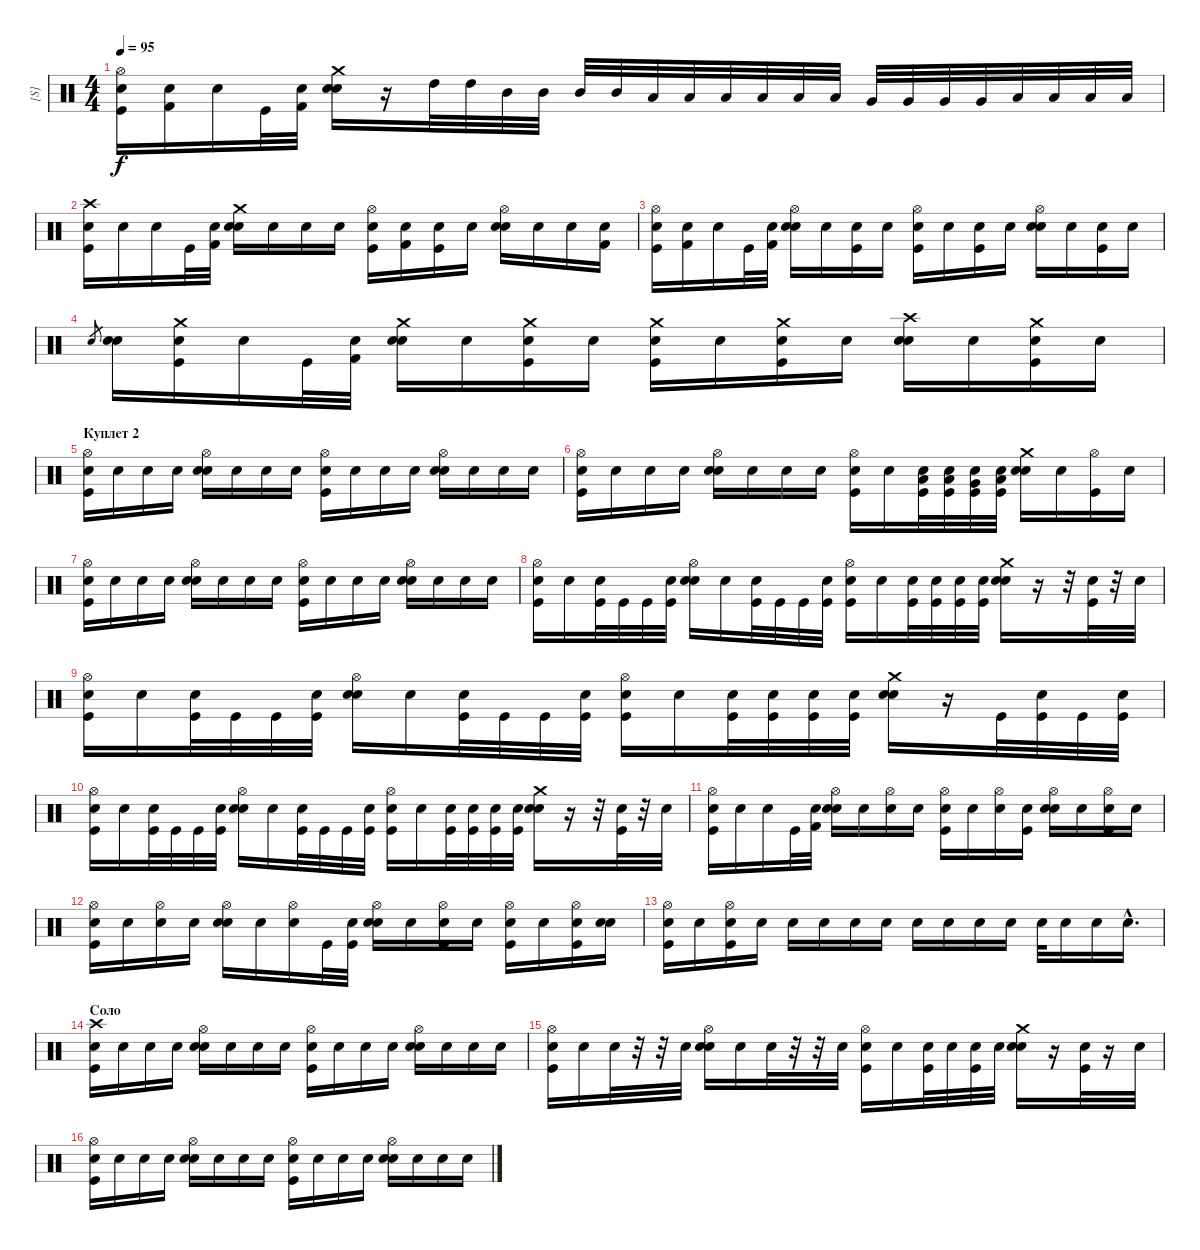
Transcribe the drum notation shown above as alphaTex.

\track ("[S]" "[S]") {instrument percussion}
\staff {score}
\articulation defaults
\ts (4 4)
\tempo 95
\clef neutral
\ks c
("Hi-Hat (open)" "Kick (hit)" "Snare (hit)"{x}).16{dy f} ("Kick (hit) 2" "Snare (hit)"{x}).16 "Snare (hit)"{x}.16 "Kick (hit)".32 ("Kick (hit) 2" "Snare (hit)"{x}).32 ("Crash medium (hit)" "Snare (hit) 2" "Snare (hit)"{x}).16 r.16 "High Tom (hit)".32 "High Tom (hit)".32 "Mid Tom (hit)".32 "Mid Tom (hit)".32 "Mid Tom (hit)".32 "Mid Tom (hit)".32 "Low Tom (hit)".32 "Low Tom (hit)".32 "Low Tom (hit)".32 "Low Tom (hit)".32 "Low Tom (hit)".32 "Low Tom (hit)".32 "Very Low Tom (hit)".32 "Very Low Tom (hit)".32 "Very Low Tom (hit)".32 "Very Low Tom (hit)".32 "Low Floor Tom (hit)".32 "Low Floor Tom (hit)".32 "Low Floor Tom (hit)".32 "Low Floor Tom (hit)".32 |
("Crash high (hit)" "Kick (hit)" "Snare (hit)"{x}).16 "Snare (hit)"{x}.16 "Snare (hit)"{x}.16 "Kick (hit)".32 ("Kick (hit) 2" "Snare (hit)"{x}).32 ("Crash medium (hit)" "Snare (hit) 2" "Snare (hit)"{x}).16 "Snare (hit)"{x}.16 "Snare (hit)"{x}.16 "Snare (hit)"{x}.16 ("Hi-Hat (open)" "Kick (hit)" "Snare (hit)"{x}).16 ("Kick (hit) 2" "Snare (hit)"{x}).16 ("Kick (hit)" "Snare (hit)"{x}).16 "Snare (hit)"{x}.16 ("Hi-Hat (open)" "Snare (hit) 2" "Snare (hit)"{x}).16 "Snare (hit)"{x}.16 "Snare (hit)"{x}.16 ("Kick (hit) 2" "Snare (hit)"{x}).16 |
("Hi-Hat (open)" "Kick (hit)" "Snare (hit)"{x}).16 ("Kick (hit) 2" "Snare (hit)"{x}).16 "Snare (hit)"{x}.16 "Kick (hit)".32 ("Kick (hit) 2" "Snare (hit)"{x}).32 ("Hi-Hat (open)" "Snare (hit) 2" "Snare (hit)"{x}).16 "Snare (hit)"{x}.16 ("Kick (hit)" "Snare (hit)"{x}).16 "Snare (hit)"{x}.16 ("Hi-Hat (open)" "Kick (hit)" "Snare (hit)"{x}).16 "Snare (hit)"{x}.16 ("Kick (hit)" "Snare (hit)"{x}).16 "Snare (hit)"{x}.16 ("Hi-Hat (open)" "Snare (hit) 2" "Snare (hit)"{x}).16 "Snare (hit)"{x}.16 ("Kick (hit)" "Snare (hit)"{x}).16 "Snare (hit)"{x}.16 |
"Snare (hit) 2".8{gr} ("Snare (hit) 2" "Snare (hit)"{x}).16 ("Crash medium (hit)" "Kick (hit)" "Snare (hit)"{x}).16 "Snare (hit)"{x}.16 "Kick (hit)".32 ("Kick (hit) 2" "Snare (hit)"{x}).32 ("Crash medium (hit)" "Snare (hit) 2" "Snare (hit)"{x}).16 "Snare (hit)"{x}.16 ("Crash medium (hit)" "Kick (hit)" "Snare (hit)"{x}).16 "Snare (hit)"{x}.16 ("Crash medium (hit)" "Kick (hit)" "Snare (hit)"{x}).16 "Snare (hit)"{x}.16 ("Crash medium (hit)" "Kick (hit)" "Snare (hit)"{x}).16 "Snare (hit)"{x}.16 ("Crash high (hit)" "Snare (hit) 2" "Snare (hit)"{x}).16 "Snare (hit)"{x}.16 ("Crash medium (hit)" "Kick (hit)" "Snare (hit)"{x}).16 "Snare (hit)"{x}.16 |
\section ("" "Куплет 2")
("Hi-Hat (open)" "Kick (hit)" "Snare (hit)"{x}).16 "Snare (hit)"{x}.16 "Snare (hit)"{x}.16 "Snare (hit)"{x}.16 ("Hi-Hat (open)" "Snare (hit) 2" "Snare (hit)"{x}).16 "Snare (hit)"{x}.16 "Snare (hit)"{x}.16 "Snare (hit)"{x}.16 ("Hi-Hat (open)" "Kick (hit)" "Snare (hit)"{x}).16 "Snare (hit)"{x}.16 "Snare (hit)"{x}.16 "Snare (hit)"{x}.16 ("Hi-Hat (open)" "Snare (hit) 2" "Snare (hit)"{x}).16 "Snare (hit)"{x}.16 "Snare (hit)"{x}.16 "Snare (hit)"{x}.16 |
("Hi-Hat (open)" "Kick (hit)" "Snare (hit)"{x}).16 "Snare (hit)"{x}.16 "Snare (hit)"{x}.16 "Snare (hit)"{x}.16 ("Hi-Hat (open)" "Snare (hit) 2" "Snare (hit)"{x}).16 "Snare (hit)"{x}.16 "Snare (hit)"{x}.16 "Snare (hit)"{x}.16 ("Hi-Hat (open)" "Kick (hit)" "Snare (hit)"{x}).16 "Snare (hit)"{x}.16 ("Low Tom (hit)" "Kick (hit)" "Snare (hit)"{x}).32 ("Low Tom (hit)" "Kick (hit)" "Snare (hit)"{x}).32 ("Very Low Tom (hit)" "Kick (hit)" "Snare (hit)"{x}).32 ("Low Floor Tom (hit)" "Kick (hit)" "Snare (hit)"{x}).32 ("Crash medium (hit)" "Snare (hit) 2" "Snare (hit)"{x}).16 "Snare (hit)"{x}.16 ("Hi-Hat (open)" "Kick (hit)").16 "Snare (hit)"{x}.16 |
\section ("" "")
("Hi-Hat (open)" "Kick (hit)" "Snare (hit)"{x}).16 "Snare (hit)"{x}.16 "Snare (hit)"{x}.16 "Snare (hit)"{x}.16 ("Hi-Hat (open)" "Snare (hit) 2" "Snare (hit)"{x}).16 "Snare (hit)"{x}.16 "Snare (hit)"{x}.16 "Snare (hit)"{x}.16 ("Hi-Hat (open)" "Kick (hit)" "Snare (hit)"{x}).16 "Snare (hit)"{x}.16 "Snare (hit)"{x}.16 "Snare (hit)"{x}.16 ("Hi-Hat (open)" "Snare (hit) 2" "Snare (hit)"{x}).16 "Snare (hit)"{x}.16 "Snare (hit)"{x}.16 "Snare (hit)"{x}.16 |
("Hi-Hat (open)" "Kick (hit)" "Snare (hit)"{x}).16 "Snare (hit)"{x}.16 ("Kick (hit)" "Snare (hit)"{x}).32 "Kick (hit)".32 "Kick (hit)".32 ("Kick (hit)" "Snare (hit)"{x}).32 ("Hi-Hat (open)" "Snare (hit) 2" "Snare (hit)"{x}).16 "Snare (hit)"{x}.16 ("Kick (hit)" "Snare (hit)"{x}).32 "Kick (hit)".32 "Kick (hit)".32 ("Kick (hit)" "Snare (hit)"{x}).32 ("Hi-Hat (open)" "Kick (hit)" "Snare (hit)"{x}).16 "Snare (hit)"{x}.16 ("Kick (hit)" "Snare (hit)"{x}).32 ("Kick (hit)" "Snare (hit)"{x}).32 ("Kick (hit)" "Snare (hit)"{x}).32 ("Kick (hit)" "Snare (hit)"{x}).32 ("Crash medium (hit)" "Snare (hit) 2" "Snare (hit)"{x}).16 r.16 r.32 ("Kick (hit)" "Snare (hit)"{x}).32 r.32 "Snare (hit)"{x}.32 |
("Hi-Hat (open)" "Kick (hit)" "Snare (hit)"{x}).16 "Snare (hit)"{x}.16 ("Kick (hit)" "Snare (hit)"{x}).32 "Kick (hit)".32 "Kick (hit)".32 ("Kick (hit)" "Snare (hit)"{x}).32 ("Hi-Hat (open)" "Snare (hit) 2" "Snare (hit)"{x}).16 "Snare (hit)"{x}.16 ("Kick (hit)" "Snare (hit)"{x}).32 "Kick (hit)".32 "Kick (hit)".32 ("Kick (hit)" "Snare (hit)"{x}).32 ("Hi-Hat (open)" "Kick (hit)" "Snare (hit)"{x}).16 "Snare (hit)"{x}.16 ("Kick (hit)" "Snare (hit)"{x}).32 ("Kick (hit)" "Snare (hit)"{x}).32 ("Kick (hit)" "Snare (hit)"{x}).32 ("Kick (hit)" "Snare (hit)"{x}).32 ("Crash medium (hit)" "Snare (hit) 2" "Snare (hit)"{x}).16 r.16 "Kick (hit)".32 ("Kick (hit)" "Snare (hit)"{x}).32 "Kick (hit)".32 ("Kick (hit)" "Snare (hit)"{x}).32 |
("Hi-Hat (open)" "Kick (hit)" "Snare (hit)"{x}).16 "Snare (hit)"{x}.16 ("Kick (hit)" "Snare (hit)"{x}).32 "Kick (hit)".32 "Kick (hit)".32 ("Kick (hit)" "Snare (hit)"{x}).32 ("Hi-Hat (open)" "Snare (hit) 2" "Snare (hit)"{x}).16 "Snare (hit)"{x}.16 ("Kick (hit)" "Snare (hit)"{x}).32 "Kick (hit)".32 "Kick (hit)".32 ("Kick (hit)" "Snare (hit)"{x}).32 ("Hi-Hat (open)" "Kick (hit)" "Snare (hit)"{x}).16 "Snare (hit)"{x}.16 ("Kick (hit)" "Snare (hit)"{x}).32 ("Kick (hit)" "Snare (hit)"{x}).32 ("Kick (hit)" "Snare (hit)"{x}).32 ("Kick (hit)" "Snare (hit)"{x}).32 ("Crash medium (hit)" "Snare (hit) 2" "Snare (hit)"{x}).16 r.16 r.32 ("Kick (hit)" "Snare (hit)"{x}).32 r.32 "Snare (hit)"{x}.32 |
("Hi-Hat (open)" "Kick (hit)" "Snare (hit)"{x}).16 "Snare (hit)"{x}.16 "Snare (hit)"{x}.16 "Kick (hit)".32 ("Kick (hit) 2" "Snare (hit)"{x}).32 ("Hi-Hat (open)" "Snare (hit) 2" "Snare (hit)"{x}).16 "Snare (hit)"{x}.16 ("Hi-Hat (open)" "Snare (hit)"{x}).16 "Snare (hit)"{x}.16 ("Hi-Hat (open)" "Kick (hit)" "Snare (hit)"{x}).16 "Snare (hit)"{x}.16 ("Hi-Hat (open)" "Snare (hit)"{x}).16 ("Kick (hit)" "Snare (hit)"{x}).16 ("Hi-Hat (open)" "Snare (hit) 2" "Snare (hit)"{x}).16 "Snare (hit)"{x}.16 ("Hi-Hat (open)" "Kick (hit)" "Snare (hit)"{x}).16 "Snare (hit)"{x}.16 |
("Hi-Hat (open)" "Kick (hit)" "Snare (hit)"{x}).16 "Snare (hit)"{x}.16 ("Hi-Hat (open)" "Snare (hit)"{x}).16 "Snare (hit)"{x}.16 ("Hi-Hat (open)" "Snare (hit) 2" "Snare (hit)"{x}).16 "Snare (hit)"{x}.16 ("Hi-Hat (open)" "Snare (hit)"{x}).16 "Kick (hit)".32 ("Kick (hit)" "Snare (hit)"{x}).32 ("Hi-Hat (open)" "Snare (hit) 2" "Snare (hit)"{x}).16 "Snare (hit)"{x}.16 ("Hi-Hat (open)" "Kick (hit)" "Snare (hit)"{x}).16 "Snare (hit)"{x}.16 ("Hi-Hat (open)" "Kick (hit)" "Snare (hit)"{x}).16 "Snare (hit)"{x}.16 ("Hi-Hat (open)" "Kick (hit)" "Snare (hit)"{x}).16 ("Snare (hit) 2" "Snare (hit)"{x}).16 |
("Hi-Hat (open)" "Kick (hit)" "Snare (hit)"{x}).16 "Snare (hit)"{x}.16 ("Hi-Hat (open)" "Kick (hit)" "Snare (hit)"{x}).16 "Snare (hit)"{x}.16 "Snare (hit)"{x}.16 "Snare (hit)"{x}.16 "Snare (hit)"{x}.16 "Snare (hit)"{x}.16 "Snare (hit)"{x}.16 "Snare (hit)"{x}.16 "Snare (hit)"{x}.16 "Snare (hit)"{x}.16 "Snare (hit)"{x}.32 "Snare (hit)"{x}.16 "Snare (hit)"{x}.16 "Snare (hit)"{hac x}.16{d} |
\section ("" "Соло")
("Crash high (hit)" "Kick (hit)" "Snare (hit)"{x}).16 "Snare (hit)"{x}.16 "Snare (hit)"{x}.16 "Snare (hit)"{x}.16 ("Hi-Hat (open)" "Snare (hit) 2" "Snare (hit)"{x}).16 "Snare (hit)"{x}.16 "Snare (hit)"{x}.16 "Snare (hit)"{x}.16 ("Hi-Hat (open)" "Kick (hit)" "Snare (hit)"{x}).16 "Snare (hit)"{x}.16 "Snare (hit)"{x}.16 "Snare (hit)"{x}.16 ("Hi-Hat (open)" "Snare (hit) 2" "Snare (hit)"{x}).16 "Snare (hit)"{x}.16 "Snare (hit)"{x}.16 "Snare (hit)"{x}.16 |
("Hi-Hat (open)" "Kick (hit)" "Snare (hit)"{x}).16 "Snare (hit)"{x}.16 "Snare (hit)"{x}.32 r.32 r.32 "Snare (hit)"{x}.32 ("Hi-Hat (open)" "Snare (hit) 2" "Snare (hit)"{x}).16 "Snare (hit)"{x}.16 "Snare (hit)"{x}.32 r.32 r.32 "Snare (hit)"{x}.32 ("Hi-Hat (open)" "Kick (hit)" "Snare (hit)"{x}).16 "Snare (hit)"{x}.16 ("Kick (hit)" "Snare (hit)"{x}).32 "Snare (hit)"{x}.32 ("Kick (hit)" "Snare (hit)"{x}).32 "Snare (hit)"{x}.32 ("Crash medium (hit)" "Snare (hit) 2" "Snare (hit)"{x}).16 r.16 ("Kick (hit)" "Snare (hit)"{x}).32 r.16 "Snare (hit)"{x}.32 |
("Hi-Hat (open)" "Kick (hit)" "Snare (hit)"{x}).16 "Snare (hit)"{x}.16 "Snare (hit)"{x}.16 "Snare (hit)"{x}.16 ("Hi-Hat (open)" "Snare (hit) 2" "Snare (hit)"{x}).16 "Snare (hit)"{x}.16 "Snare (hit)"{x}.16 "Snare (hit)"{x}.16 ("Hi-Hat (open)" "Kick (hit)" "Snare (hit)"{x}).16 "Snare (hit)"{x}.16 "Snare (hit)"{x}.16 "Snare (hit)"{x}.16 ("Hi-Hat (open)" "Snare (hit) 2" "Snare (hit)"{x}).16 "Snare (hit)"{x}.16 "Snare (hit)"{x}.16 "Snare (hit)"{x}.16
